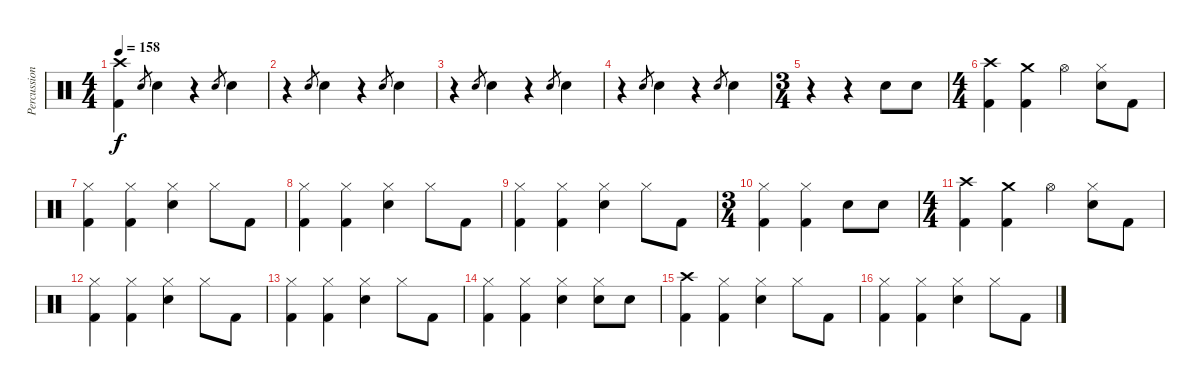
\track ("Percussions" "Percussion") {instrument percussion}
\staff {score}
\articulation defaults
\ts (4 4)
\tempo 158
\clef neutral
\ks c
("Crash high (hit)" "Kick (hit) 2").4{dy f} "Snare (hit) 2".8{gr} "Snare (hit) 2".4 r.4 "Snare (hit) 2".8{gr} "Snare (hit) 2".4 |
r.4 "Snare (hit) 2".8{gr} "Snare (hit) 2".4 r.4 "Snare (hit) 2".8{gr} "Snare (hit) 2".4 |
r.4 "Snare (hit) 2".8{gr} "Snare (hit) 2".4 r.4 "Snare (hit) 2".8{gr} "Snare (hit) 2".4 |
r.4 "Snare (hit) 2".8{gr} "Snare (hit) 2".4 r.4 "Snare (hit) 2".8{gr} "Snare (hit) 2".4 |
\ts (3 4)
r.4 r.4 "Snare (hit) 2".8 "Snare (hit) 2".8 |
\ts (4 4)
("Crash high (hit)" "Kick (hit) 2").4 ("Crash medium (hit)" "Kick (hit) 2").4 "Hi-Hat (open)".4 ("Hi-Hat (closed)" "Snare (hit) 2").8 "Kick (hit) 2".8 |
("Hi-Hat (closed)" "Kick (hit) 2").4 ("Hi-Hat (closed)" "Kick (hit) 2").4 ("Hi-Hat (closed)" "Snare (hit) 2").4 "Hi-Hat (closed)".8 "Kick (hit) 2".8 |
("Hi-Hat (closed)" "Kick (hit) 2").4 ("Hi-Hat (closed)" "Kick (hit) 2").4 ("Hi-Hat (closed)" "Snare (hit) 2").4 "Hi-Hat (closed)".8 "Kick (hit) 2".8 |
("Hi-Hat (closed)" "Kick (hit) 2").4 ("Hi-Hat (closed)" "Kick (hit) 2").4 ("Hi-Hat (closed)" "Snare (hit) 2").4 "Hi-Hat (closed)".8 "Kick (hit) 2".8 |
\ts (3 4)
("Hi-Hat (closed)" "Kick (hit) 2").4 ("Hi-Hat (closed)" "Kick (hit) 2").4 "Snare (hit) 2".8 "Snare (hit) 2".8 |
\ts (4 4)
("Crash high (hit)" "Kick (hit) 2").4 ("Crash medium (hit)" "Kick (hit) 2").4 "Hi-Hat (open)".4 ("Hi-Hat (closed)" "Snare (hit) 2").8 "Kick (hit) 2".8 |
("Hi-Hat (closed)" "Kick (hit) 2").4 ("Hi-Hat (closed)" "Kick (hit) 2").4 ("Hi-Hat (closed)" "Snare (hit) 2").4 "Hi-Hat (closed)".8 "Kick (hit) 2".8 |
("Hi-Hat (closed)" "Kick (hit) 2").4 ("Hi-Hat (closed)" "Kick (hit) 2").4 ("Hi-Hat (closed)" "Snare (hit) 2").4 "Hi-Hat (closed)".8 "Kick (hit) 2".8 |
("Hi-Hat (closed)" "Kick (hit) 2").4 ("Hi-Hat (closed)" "Kick (hit) 2").4 ("Hi-Hat (closed)" "Snare (hit) 2").4 ("Hi-Hat (closed)" "Snare (hit) 2").8 "Snare (hit) 2".8 |
("Crash high (hit)" "Kick (hit) 2").4 ("Hi-Hat (closed)" "Kick (hit) 2").4 ("Hi-Hat (closed)" "Snare (hit) 2").4 "Hi-Hat (closed)".8 "Kick (hit) 2".8 |
("Hi-Hat (closed)" "Kick (hit) 2").4 ("Hi-Hat (closed)" "Kick (hit) 2").4 ("Hi-Hat (closed)" "Snare (hit) 2").4 "Hi-Hat (closed)".8 "Kick (hit) 2".8
